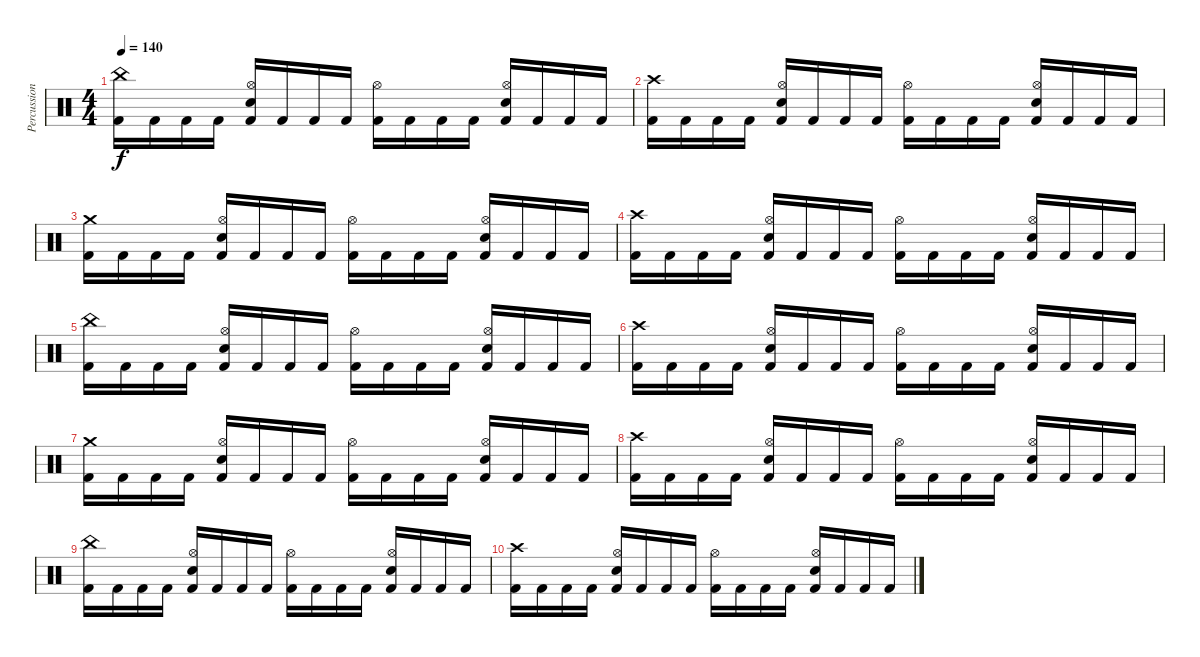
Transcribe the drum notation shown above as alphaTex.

\track ("Percussion" "Percussion") {instrument percussion}
\staff {score}
\articulation defaults
\ts (4 4)
\tempo 140
\clef neutral
\ks c
("China (hit)" "Kick (hit) 2").16{dy f} "Kick (hit) 2".16 "Kick (hit) 2".16 "Kick (hit) 2".16 ("Hi-Hat (open)" "Electric Snare (hit)" "Kick (hit) 2").16 "Kick (hit) 2".16 "Kick (hit) 2".16 "Kick (hit) 2".16 ("Hi-Hat (open)" "Kick (hit) 2").16 "Kick (hit) 2".16 "Kick (hit) 2".16 "Kick (hit) 2".16 ("Hi-Hat (open)" "Electric Snare (hit)" "Kick (hit) 2").16 "Kick (hit) 2".16 "Kick (hit) 2".16 "Kick (hit) 2".16 |
("Crash high (hit)" "Kick (hit) 2").16 "Kick (hit) 2".16 "Kick (hit) 2".16 "Kick (hit) 2".16 ("Hi-Hat (open)" "Electric Snare (hit)" "Kick (hit) 2").16 "Kick (hit) 2".16 "Kick (hit) 2".16 "Kick (hit) 2".16 ("Hi-Hat (open)" "Kick (hit) 2").16 "Kick (hit) 2".16 "Kick (hit) 2".16 "Kick (hit) 2".16 ("Hi-Hat (open)" "Electric Snare (hit)" "Kick (hit) 2").16 "Kick (hit) 2".16 "Kick (hit) 2".16 "Kick (hit) 2".16 |
("Crash medium (hit)" "Kick (hit) 2").16 "Kick (hit) 2".16 "Kick (hit) 2".16 "Kick (hit) 2".16 ("Hi-Hat (open)" "Electric Snare (hit)" "Kick (hit) 2").16 "Kick (hit) 2".16 "Kick (hit) 2".16 "Kick (hit) 2".16 ("Hi-Hat (open)" "Kick (hit) 2").16 "Kick (hit) 2".16 "Kick (hit) 2".16 "Kick (hit) 2".16 ("Hi-Hat (open)" "Electric Snare (hit)" "Kick (hit) 2").16 "Kick (hit) 2".16 "Kick (hit) 2".16 "Kick (hit) 2".16 |
("Crash high (hit)" "Kick (hit) 2").16 "Kick (hit) 2".16 "Kick (hit) 2".16 "Kick (hit) 2".16 ("Hi-Hat (open)" "Electric Snare (hit)" "Kick (hit) 2").16 "Kick (hit) 2".16 "Kick (hit) 2".16 "Kick (hit) 2".16 ("Hi-Hat (open)" "Kick (hit) 2").16 "Kick (hit) 2".16 "Kick (hit) 2".16 "Kick (hit) 2".16 ("Hi-Hat (open)" "Electric Snare (hit)" "Kick (hit) 2").16 "Kick (hit) 2".16 "Kick (hit) 2".16 "Kick (hit) 2".16 |
("China (hit)" "Kick (hit) 2").16 "Kick (hit) 2".16 "Kick (hit) 2".16 "Kick (hit) 2".16 ("Hi-Hat (open)" "Electric Snare (hit)" "Kick (hit) 2").16 "Kick (hit) 2".16 "Kick (hit) 2".16 "Kick (hit) 2".16 ("Hi-Hat (open)" "Kick (hit) 2").16 "Kick (hit) 2".16 "Kick (hit) 2".16 "Kick (hit) 2".16 ("Hi-Hat (open)" "Electric Snare (hit)" "Kick (hit) 2").16 "Kick (hit) 2".16 "Kick (hit) 2".16 "Kick (hit) 2".16 |
("Crash high (hit)" "Kick (hit) 2").16 "Kick (hit) 2".16 "Kick (hit) 2".16 "Kick (hit) 2".16 ("Hi-Hat (open)" "Electric Snare (hit)" "Kick (hit) 2").16 "Kick (hit) 2".16 "Kick (hit) 2".16 "Kick (hit) 2".16 ("Hi-Hat (open)" "Kick (hit) 2").16 "Kick (hit) 2".16 "Kick (hit) 2".16 "Kick (hit) 2".16 ("Hi-Hat (open)" "Electric Snare (hit)" "Kick (hit) 2").16 "Kick (hit) 2".16 "Kick (hit) 2".16 "Kick (hit) 2".16 |
("Crash medium (hit)" "Kick (hit) 2").16 "Kick (hit) 2".16 "Kick (hit) 2".16 "Kick (hit) 2".16 ("Hi-Hat (open)" "Electric Snare (hit)" "Kick (hit) 2").16 "Kick (hit) 2".16 "Kick (hit) 2".16 "Kick (hit) 2".16 ("Hi-Hat (open)" "Kick (hit) 2").16 "Kick (hit) 2".16 "Kick (hit) 2".16 "Kick (hit) 2".16 ("Hi-Hat (open)" "Electric Snare (hit)" "Kick (hit) 2").16 "Kick (hit) 2".16 "Kick (hit) 2".16 "Kick (hit) 2".16 |
("Crash high (hit)" "Kick (hit) 2").16 "Kick (hit) 2".16 "Kick (hit) 2".16 "Kick (hit) 2".16 ("Hi-Hat (open)" "Electric Snare (hit)" "Kick (hit) 2").16 "Kick (hit) 2".16 "Kick (hit) 2".16 "Kick (hit) 2".16 ("Hi-Hat (open)" "Kick (hit) 2").16 "Kick (hit) 2".16 "Kick (hit) 2".16 "Kick (hit) 2".16 ("Hi-Hat (open)" "Electric Snare (hit)" "Kick (hit) 2").16 "Kick (hit) 2".16 "Kick (hit) 2".16 "Kick (hit) 2".16 |
("China (hit)" "Kick (hit) 2").16 "Kick (hit) 2".16 "Kick (hit) 2".16 "Kick (hit) 2".16 ("Hi-Hat (open)" "Electric Snare (hit)" "Kick (hit) 2").16 "Kick (hit) 2".16 "Kick (hit) 2".16 "Kick (hit) 2".16 ("Hi-Hat (open)" "Kick (hit) 2").16 "Kick (hit) 2".16 "Kick (hit) 2".16 "Kick (hit) 2".16 ("Hi-Hat (open)" "Electric Snare (hit)" "Kick (hit) 2").16 "Kick (hit) 2".16 "Kick (hit) 2".16 "Kick (hit) 2".16 |
("Crash high (hit)" "Kick (hit) 2").16 "Kick (hit) 2".16 "Kick (hit) 2".16 "Kick (hit) 2".16 ("Hi-Hat (open)" "Electric Snare (hit)" "Kick (hit) 2").16 "Kick (hit) 2".16 "Kick (hit) 2".16 "Kick (hit) 2".16 ("Hi-Hat (open)" "Kick (hit) 2").16 "Kick (hit) 2".16 "Kick (hit) 2".16 "Kick (hit) 2".16 ("Hi-Hat (open)" "Electric Snare (hit)" "Kick (hit) 2").16 "Kick (hit) 2".16 "Kick (hit) 2".16 "Kick (hit) 2".16
